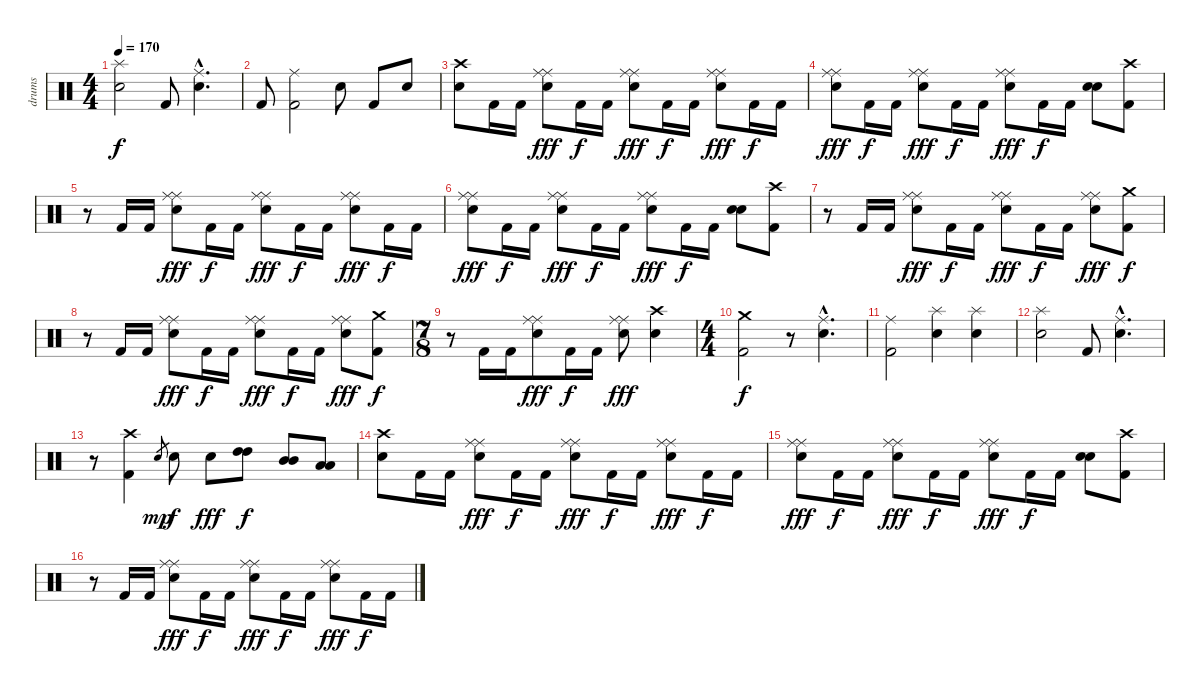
\track ("drums" "drums") {instrument percussion}
\staff {score}
\articulation defaults
\ts (4 4)
\tempo 170
\clef neutral
\ks c
("Splash (hit)" "Snare (hit) 2").2{dy f} "Kick (hit) 2".8 ("Ride (middle)"{hac} "Snare (hit) 2"{hac}).4{d} |
"Kick (hit) 2".8 ("Ride (middle)" "Kick (hit) 2").2 "Snare (hit) 2".8 "Kick (hit) 2".8 "Snare (hit) 2".8 |
("Crash high (hit)" "Snare (hit) 2").8 "Kick (hit) 2".16 "Kick (hit) 2".16 ("Ride (middle)" "Ride (middle)" "Snare (hit) 2").8{dy fff} "Kick (hit) 2".16{dy f} "Kick (hit) 2".16 ("Ride (middle)" "Ride (middle)" "Snare (hit) 2").8{dy fff} "Kick (hit) 2".16{dy f} "Kick (hit) 2".16 ("Ride (middle)" "Ride (middle)" "Snare (hit) 2").8{dy fff} "Kick (hit) 2".16{dy f} "Kick (hit) 2".16 |
("Ride (middle)" "Ride (middle)" "Snare (hit) 2").8{dy fff} "Kick (hit) 2".16{dy f} "Kick (hit) 2".16 ("Ride (middle)" "Ride (middle)" "Snare (hit) 2").8{dy fff} "Kick (hit) 2".16{dy f} "Kick (hit) 2".16 ("Ride (middle)" "Ride (middle)" "Snare (hit) 2").8{dy fff} "Kick (hit) 2".16{dy f} "Kick (hit) 2".16 ("Snare (hit) 2" "Snare (hit) 2").8 ("Crash high (hit)" "Kick (hit) 2").8 |
r.8 "Kick (hit) 2".16 "Kick (hit) 2".16 ("Ride (middle)" "Ride (middle)" "Snare (hit) 2").8{dy fff} "Kick (hit) 2".16{dy f} "Kick (hit) 2".16 ("Ride (middle)" "Ride (middle)" "Snare (hit) 2").8{dy fff} "Kick (hit) 2".16{dy f} "Kick (hit) 2".16 ("Ride (middle)" "Ride (middle)" "Snare (hit) 2").8{dy fff} "Kick (hit) 2".16{dy f} "Kick (hit) 2".16 |
("Ride (middle)" "Ride (middle)" "Snare (hit) 2").8{dy fff} "Kick (hit) 2".16{dy f} "Kick (hit) 2".16 ("Ride (middle)" "Ride (middle)" "Snare (hit) 2").8{dy fff} "Kick (hit) 2".16{dy f} "Kick (hit) 2".16 ("Ride (middle)" "Ride (middle)" "Snare (hit) 2").8{dy fff} "Kick (hit) 2".16{dy f} "Kick (hit) 2".16 ("Snare (hit) 2" "Snare (hit) 2").8 ("Crash high (hit)" "Kick (hit) 2").8 |
r.8 "Kick (hit) 2".16 "Kick (hit) 2".16 ("Ride (middle)" "Ride (middle)" "Snare (hit) 2").8{dy fff} "Kick (hit) 2".16{dy f} "Kick (hit) 2".16 ("Ride (middle)" "Ride (middle)" "Snare (hit) 2").8{dy fff} "Kick (hit) 2".16{dy f} "Kick (hit) 2".16 ("Ride (middle)" "Ride (middle)" "Snare (hit) 2").8{dy fff} ("Crash medium (hit)" "Kick (hit) 2").8{dy f} |
r.8 "Kick (hit) 2".16 "Kick (hit) 2".16 ("Ride (middle)" "Ride (middle)" "Snare (hit) 2").8{dy fff} "Kick (hit) 2".16{dy f} "Kick (hit) 2".16 ("Ride (middle)" "Ride (middle)" "Snare (hit) 2").8{dy fff} "Kick (hit) 2".16{dy f} "Kick (hit) 2".16 ("Ride (middle)" "Ride (middle)" "Snare (hit) 2").8{dy fff} ("Crash medium (hit)" "Kick (hit) 2").8{dy f} |
\ts (7 8)
r.8 "Kick (hit) 2".16 "Kick (hit) 2".16 ("Ride (middle)" "Ride (middle)" "Snare (hit) 2").8{dy fff} "Kick (hit) 2".16{dy f} "Kick (hit) 2".16 ("Ride (middle)" "Ride (middle)" "Snare (hit) 2").8{dy fff} ("Crash high (hit)" "Snare (hit) 2").4 |
\ts (4 4)
("Crash medium (hit)" "Kick (hit) 2").2{dy f} r.8 ("Ride (middle)"{hac} "Snare (hit) 2"{hac}).4{d} |
("Ride (middle)" "Kick (hit) 2").2 ("Splash (hit)" "Snare (hit) 2").4 ("Splash (hit)" "Snare (hit) 2").4 |
("Splash (hit)" "Snare (hit) 2").2 "Kick (hit) 2".8 ("Ride (middle)"{hac} "Snare (hit) 2"{hac}).4{d} |
r.8 ("Crash high (hit)" "Kick (hit) 2").4 "Snare (hit) 2".8{gr dy mp} "Snare (hit) 2".8{dy f} "Snare (hit) 2".8{dy fff} ("High Tom (hit)" "High Tom (hit)").8{dy f} ("Mid Tom (hit)" "Mid Tom (hit)").8 ("Low Tom (hit)" "Low Tom (hit)").8 |
("Crash high (hit)" "Snare (hit) 2").8 "Kick (hit) 2".16 "Kick (hit) 2".16 ("Ride (middle)" "Ride (middle)" "Snare (hit) 2").8{dy fff} "Kick (hit) 2".16{dy f} "Kick (hit) 2".16 ("Ride (middle)" "Ride (middle)" "Snare (hit) 2").8{dy fff} "Kick (hit) 2".16{dy f} "Kick (hit) 2".16 ("Ride (middle)" "Ride (middle)" "Snare (hit) 2").8{dy fff} "Kick (hit) 2".16{dy f} "Kick (hit) 2".16 |
("Ride (middle)" "Ride (middle)" "Snare (hit) 2").8{dy fff} "Kick (hit) 2".16{dy f} "Kick (hit) 2".16 ("Ride (middle)" "Ride (middle)" "Snare (hit) 2").8{dy fff} "Kick (hit) 2".16{dy f} "Kick (hit) 2".16 ("Ride (middle)" "Ride (middle)" "Snare (hit) 2").8{dy fff} "Kick (hit) 2".16{dy f} "Kick (hit) 2".16 ("Snare (hit) 2" "Snare (hit) 2").8 ("Crash high (hit)" "Kick (hit) 2").8 |
r.8 "Kick (hit) 2".16 "Kick (hit) 2".16 ("Ride (middle)" "Ride (middle)" "Snare (hit) 2").8{dy fff} "Kick (hit) 2".16{dy f} "Kick (hit) 2".16 ("Ride (middle)" "Ride (middle)" "Snare (hit) 2").8{dy fff} "Kick (hit) 2".16{dy f} "Kick (hit) 2".16 ("Ride (middle)" "Ride (middle)" "Snare (hit) 2").8{dy fff} "Kick (hit) 2".16{dy f} "Kick (hit) 2".16
